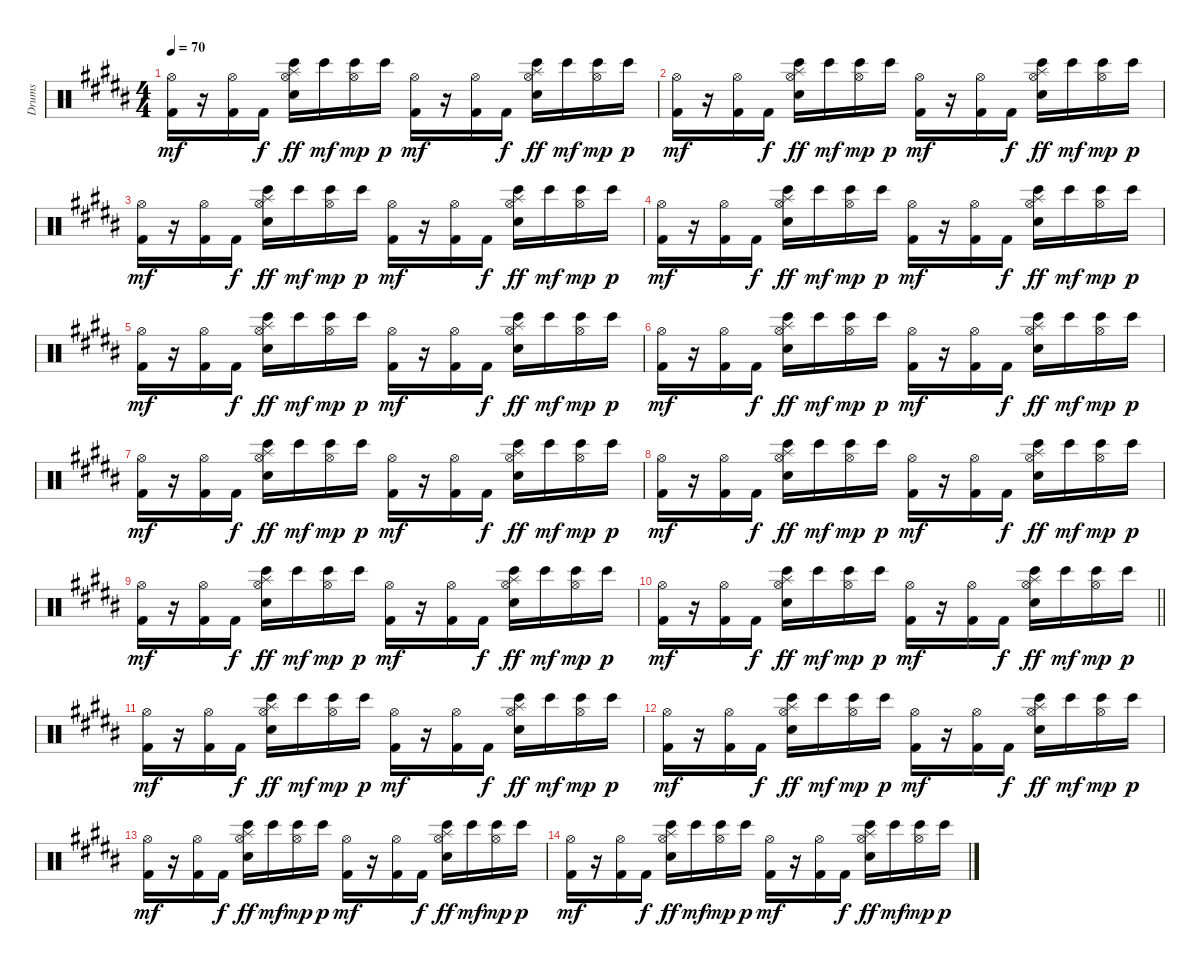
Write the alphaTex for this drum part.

\track ("Drums" "Drums") {instrument percussion}
\staff {score}
\articulation defaults
\ts (4 4)
\tempo 70
\clef neutral
\ks b
("Hi-Hat (open)" "Kick (hit) 2").16{dy mf} r.16 ("Hi-Hat (open)" "Kick (hit) 2").16 "Kick (hit) 2".16{dy f} ("Hi-Hat (open)" "Splash (hit)" "Snare (hit) 2" "Bongo High (hit)").16{dy ff} "Bongo High (hit)".16{dy mf} ("Hi-Hat (open)" "Bongo High (hit)").16{dy mp} "Bongo High (hit)".16{dy p} ("Hi-Hat (open)" "Kick (hit) 2").16{dy mf} r.16 ("Hi-Hat (open)" "Kick (hit) 2").16 "Kick (hit) 2".16{dy f} ("Hi-Hat (open)" "Splash (hit)" "Snare (hit) 2" "Bongo High (hit)").16{dy ff} "Bongo High (hit)".16{dy mf} ("Hi-Hat (open)" "Bongo High (hit)").16{dy mp} "Bongo High (hit)".16{dy p} |
("Hi-Hat (open)" "Kick (hit) 2").16{dy mf} r.16 ("Hi-Hat (open)" "Kick (hit) 2").16 "Kick (hit) 2".16{dy f} ("Hi-Hat (open)" "Splash (hit)" "Snare (hit) 2" "Bongo High (hit)").16{dy ff} "Bongo High (hit)".16{dy mf} ("Hi-Hat (open)" "Bongo High (hit)").16{dy mp} "Bongo High (hit)".16{dy p} ("Hi-Hat (open)" "Kick (hit) 2").16{dy mf} r.16 ("Hi-Hat (open)" "Kick (hit) 2").16 "Kick (hit) 2".16{dy f} ("Hi-Hat (open)" "Splash (hit)" "Snare (hit) 2" "Bongo High (hit)").16{dy ff} "Bongo High (hit)".16{dy mf} ("Hi-Hat (open)" "Bongo High (hit)").16{dy mp} "Bongo High (hit)".16{dy p} |
("Hi-Hat (open)" "Kick (hit) 2").16{dy mf} r.16 ("Hi-Hat (open)" "Kick (hit) 2").16 "Kick (hit) 2".16{dy f} ("Hi-Hat (open)" "Splash (hit)" "Snare (hit) 2" "Bongo High (hit)").16{dy ff} "Bongo High (hit)".16{dy mf} ("Hi-Hat (open)" "Bongo High (hit)").16{dy mp} "Bongo High (hit)".16{dy p} ("Hi-Hat (open)" "Kick (hit) 2").16{dy mf} r.16 ("Hi-Hat (open)" "Kick (hit) 2").16 "Kick (hit) 2".16{dy f} ("Hi-Hat (open)" "Splash (hit)" "Snare (hit) 2" "Bongo High (hit)").16{dy ff} "Bongo High (hit)".16{dy mf} ("Hi-Hat (open)" "Bongo High (hit)").16{dy mp} "Bongo High (hit)".16{dy p} |
("Hi-Hat (open)" "Kick (hit) 2").16{dy mf} r.16 ("Hi-Hat (open)" "Kick (hit) 2").16 "Kick (hit) 2".16{dy f} ("Hi-Hat (open)" "Splash (hit)" "Snare (hit) 2" "Bongo High (hit)").16{dy ff} "Bongo High (hit)".16{dy mf} ("Hi-Hat (open)" "Bongo High (hit)").16{dy mp} "Bongo High (hit)".16{dy p} ("Hi-Hat (open)" "Kick (hit) 2").16{dy mf} r.16 ("Hi-Hat (open)" "Kick (hit) 2").16 "Kick (hit) 2".16{dy f} ("Hi-Hat (open)" "Splash (hit)" "Snare (hit) 2" "Bongo High (hit)").16{dy ff} "Bongo High (hit)".16{dy mf} ("Hi-Hat (open)" "Bongo High (hit)").16{dy mp} "Bongo High (hit)".16{dy p} |
("Hi-Hat (open)" "Kick (hit) 2").16{dy mf} r.16 ("Hi-Hat (open)" "Kick (hit) 2").16 "Kick (hit) 2".16{dy f} ("Hi-Hat (open)" "Splash (hit)" "Snare (hit) 2" "Bongo High (hit)").16{dy ff} "Bongo High (hit)".16{dy mf} ("Hi-Hat (open)" "Bongo High (hit)").16{dy mp} "Bongo High (hit)".16{dy p} ("Hi-Hat (open)" "Kick (hit) 2").16{dy mf} r.16 ("Hi-Hat (open)" "Kick (hit) 2").16 "Kick (hit) 2".16{dy f} ("Hi-Hat (open)" "Splash (hit)" "Snare (hit) 2" "Bongo High (hit)").16{dy ff} "Bongo High (hit)".16{dy mf} ("Hi-Hat (open)" "Bongo High (hit)").16{dy mp} "Bongo High (hit)".16{dy p} |
("Hi-Hat (open)" "Kick (hit) 2").16{dy mf} r.16 ("Hi-Hat (open)" "Kick (hit) 2").16 "Kick (hit) 2".16{dy f} ("Hi-Hat (open)" "Splash (hit)" "Snare (hit) 2" "Bongo High (hit)").16{dy ff} "Bongo High (hit)".16{dy mf} ("Hi-Hat (open)" "Bongo High (hit)").16{dy mp} "Bongo High (hit)".16{dy p} ("Hi-Hat (open)" "Kick (hit) 2").16{dy mf} r.16 ("Hi-Hat (open)" "Kick (hit) 2").16 "Kick (hit) 2".16{dy f} ("Hi-Hat (open)" "Splash (hit)" "Snare (hit) 2" "Bongo High (hit)").16{dy ff} "Bongo High (hit)".16{dy mf} ("Hi-Hat (open)" "Bongo High (hit)").16{dy mp} "Bongo High (hit)".16{dy p} |
("Hi-Hat (open)" "Kick (hit) 2").16{dy mf} r.16 ("Hi-Hat (open)" "Kick (hit) 2").16 "Kick (hit) 2".16{dy f} ("Hi-Hat (open)" "Splash (hit)" "Snare (hit) 2" "Bongo High (hit)").16{dy ff} "Bongo High (hit)".16{dy mf} ("Hi-Hat (open)" "Bongo High (hit)").16{dy mp} "Bongo High (hit)".16{dy p} ("Hi-Hat (open)" "Kick (hit) 2").16{dy mf} r.16 ("Hi-Hat (open)" "Kick (hit) 2").16 "Kick (hit) 2".16{dy f} ("Hi-Hat (open)" "Splash (hit)" "Snare (hit) 2" "Bongo High (hit)").16{dy ff} "Bongo High (hit)".16{dy mf} ("Hi-Hat (open)" "Bongo High (hit)").16{dy mp} "Bongo High (hit)".16{dy p} |
("Hi-Hat (open)" "Kick (hit) 2").16{dy mf} r.16 ("Hi-Hat (open)" "Kick (hit) 2").16 "Kick (hit) 2".16{dy f} ("Hi-Hat (open)" "Splash (hit)" "Snare (hit) 2" "Bongo High (hit)").16{dy ff} "Bongo High (hit)".16{dy mf} ("Hi-Hat (open)" "Bongo High (hit)").16{dy mp} "Bongo High (hit)".16{dy p} ("Hi-Hat (open)" "Kick (hit) 2").16{dy mf} r.16 ("Hi-Hat (open)" "Kick (hit) 2").16 "Kick (hit) 2".16{dy f} ("Hi-Hat (open)" "Splash (hit)" "Snare (hit) 2" "Bongo High (hit)").16{dy ff} "Bongo High (hit)".16{dy mf} ("Hi-Hat (open)" "Bongo High (hit)").16{dy mp} "Bongo High (hit)".16{dy p} |
("Hi-Hat (open)" "Kick (hit) 2").16{dy mf} r.16 ("Hi-Hat (open)" "Kick (hit) 2").16 "Kick (hit) 2".16{dy f} ("Hi-Hat (open)" "Splash (hit)" "Snare (hit) 2" "Bongo High (hit)").16{dy ff} "Bongo High (hit)".16{dy mf} ("Hi-Hat (open)" "Bongo High (hit)").16{dy mp} "Bongo High (hit)".16{dy p} ("Hi-Hat (open)" "Kick (hit) 2").16{dy mf} r.16 ("Hi-Hat (open)" "Kick (hit) 2").16 "Kick (hit) 2".16{dy f} ("Hi-Hat (open)" "Splash (hit)" "Snare (hit) 2" "Bongo High (hit)").16{dy ff} "Bongo High (hit)".16{dy mf} ("Hi-Hat (open)" "Bongo High (hit)").16{dy mp} "Bongo High (hit)".16{dy p} |
\barLineRight lightlight
("Hi-Hat (open)" "Kick (hit) 2").16{dy mf} r.16 ("Hi-Hat (open)" "Kick (hit) 2").16 "Kick (hit) 2".16{dy f} ("Hi-Hat (open)" "Splash (hit)" "Snare (hit) 2" "Bongo High (hit)").16{dy ff} "Bongo High (hit)".16{dy mf} ("Hi-Hat (open)" "Bongo High (hit)").16{dy mp} "Bongo High (hit)".16{dy p} ("Hi-Hat (open)" "Kick (hit) 2").16{dy mf} r.16 ("Hi-Hat (open)" "Kick (hit) 2").16 "Kick (hit) 2".16{dy f} ("Hi-Hat (open)" "Splash (hit)" "Snare (hit) 2" "Bongo High (hit)").16{dy ff} "Bongo High (hit)".16{dy mf} ("Hi-Hat (open)" "Bongo High (hit)").16{dy mp} "Bongo High (hit)".16{dy p} |
("Hi-Hat (open)" "Kick (hit) 2").16{dy mf} r.16 ("Hi-Hat (open)" "Kick (hit) 2").16 "Kick (hit) 2".16{dy f} ("Hi-Hat (open)" "Splash (hit)" "Snare (hit) 2" "Bongo High (hit)").16{dy ff} "Bongo High (hit)".16{dy mf} ("Hi-Hat (open)" "Bongo High (hit)").16{dy mp} "Bongo High (hit)".16{dy p} ("Hi-Hat (open)" "Kick (hit) 2").16{dy mf} r.16 ("Hi-Hat (open)" "Kick (hit) 2").16 "Kick (hit) 2".16{dy f} ("Hi-Hat (open)" "Splash (hit)" "Snare (hit) 2" "Bongo High (hit)").16{dy ff} "Bongo High (hit)".16{dy mf} ("Hi-Hat (open)" "Bongo High (hit)").16{dy mp} "Bongo High (hit)".16{dy p} |
("Hi-Hat (open)" "Kick (hit) 2").16{dy mf} r.16 ("Hi-Hat (open)" "Kick (hit) 2").16 "Kick (hit) 2".16{dy f} ("Hi-Hat (open)" "Splash (hit)" "Snare (hit) 2" "Bongo High (hit)").16{dy ff} "Bongo High (hit)".16{dy mf} ("Hi-Hat (open)" "Bongo High (hit)").16{dy mp} "Bongo High (hit)".16{dy p} ("Hi-Hat (open)" "Kick (hit) 2").16{dy mf} r.16 ("Hi-Hat (open)" "Kick (hit) 2").16 "Kick (hit) 2".16{dy f} ("Hi-Hat (open)" "Splash (hit)" "Snare (hit) 2" "Bongo High (hit)").16{dy ff} "Bongo High (hit)".16{dy mf} ("Hi-Hat (open)" "Bongo High (hit)").16{dy mp} "Bongo High (hit)".16{dy p} |
("Hi-Hat (open)" "Kick (hit) 2").16{dy mf} r.16 ("Hi-Hat (open)" "Kick (hit) 2").16 "Kick (hit) 2".16{dy f} ("Hi-Hat (open)" "Splash (hit)" "Snare (hit) 2" "Bongo High (hit)").16{dy ff} "Bongo High (hit)".16{dy mf} ("Hi-Hat (open)" "Bongo High (hit)").16{dy mp} "Bongo High (hit)".16{dy p} ("Hi-Hat (open)" "Kick (hit) 2").16{dy mf} r.16 ("Hi-Hat (open)" "Kick (hit) 2").16 "Kick (hit) 2".16{dy f} ("Hi-Hat (open)" "Splash (hit)" "Snare (hit) 2" "Bongo High (hit)").16{dy ff} "Bongo High (hit)".16{dy mf} ("Hi-Hat (open)" "Bongo High (hit)").16{dy mp} "Bongo High (hit)".16{dy p} |
("Hi-Hat (open)" "Kick (hit) 2").16{dy mf} r.16 ("Hi-Hat (open)" "Kick (hit) 2").16 "Kick (hit) 2".16{dy f} ("Hi-Hat (open)" "Splash (hit)" "Snare (hit) 2" "Bongo High (hit)").16{dy ff} "Bongo High (hit)".16{dy mf} ("Hi-Hat (open)" "Bongo High (hit)").16{dy mp} "Bongo High (hit)".16{dy p} ("Hi-Hat (open)" "Kick (hit) 2").16{dy mf} r.16 ("Hi-Hat (open)" "Kick (hit) 2").16 "Kick (hit) 2".16{dy f} ("Hi-Hat (open)" "Splash (hit)" "Snare (hit) 2" "Bongo High (hit)").16{dy ff} "Bongo High (hit)".16{dy mf} ("Hi-Hat (open)" "Bongo High (hit)").16{dy mp} "Bongo High (hit)".16{dy p}
